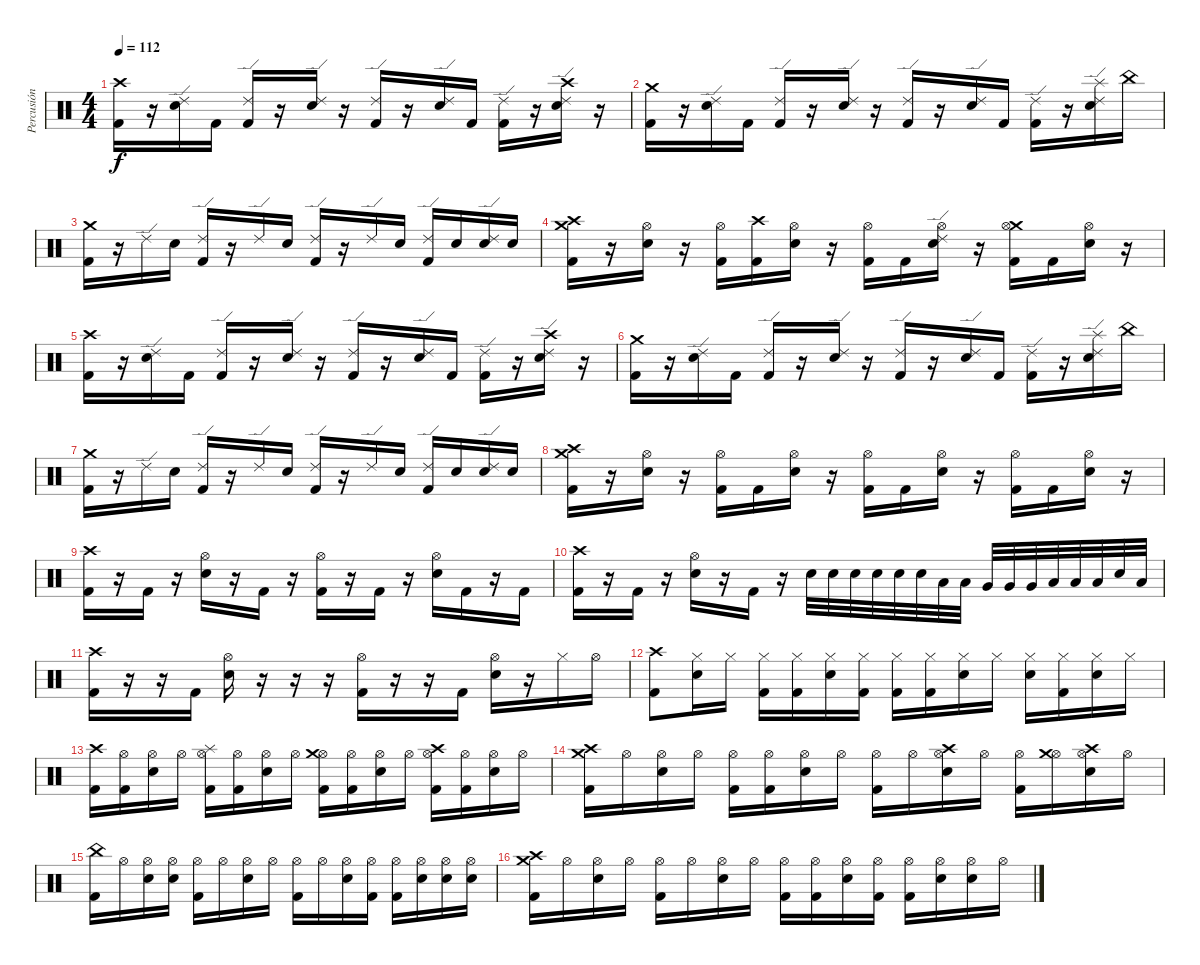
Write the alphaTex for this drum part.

\track ("Percusión" "Percusión") {instrument percussion}
\staff {score}
\articulation defaults
\ts (4 4)
\tempo 112
\clef neutral
\ks c
("Crash high (hit)" "Kick (hit) 2").16{dy f} r.16 ("Ride (edge) 2" "Electric Snare (hit)").16 "Kick (hit) 2".16 ("Ride (edge) 2" "Kick (hit) 2").16 r.16 ("Ride (edge) 2" "Electric Snare (hit)").16 r.16 ("Ride (edge) 2" "Kick (hit) 2").16 r.16 ("Ride (edge) 2" "Electric Snare (hit)").16 "Kick (hit) 2".16 ("Ride (edge) 2" "Kick (hit) 2").16 r.16 ("Crash high (hit)" "Ride (edge) 2" "Electric Snare (hit)").16 r.16 |
("Crash medium (hit)" "Kick (hit) 2").16 r.16 ("Ride (edge) 2" "Electric Snare (hit)").16 "Kick (hit) 2".16 ("Ride (edge) 2" "Kick (hit) 2").16 r.16 ("Ride (edge) 2" "Electric Snare (hit)").16 r.16 ("Ride (edge) 2" "Kick (hit) 2").16 r.16 ("Ride (edge) 2" "Electric Snare (hit)").16 "Kick (hit) 2".16 ("Ride (edge) 2" "Kick (hit) 2").16 r.16 ("Splash (hit)" "Ride (edge) 2" "Electric Snare (hit)").16 "China (hit)".16 |
("Crash medium (hit)" "Kick (hit) 2").16 r.16 "Ride (edge) 2".16 "Electric Snare (hit)".16 ("Ride (edge) 2" "Kick (hit) 2").16 r.16 "Ride (edge) 2".16 "Electric Snare (hit)".16 ("Ride (edge) 2" "Kick (hit) 2").16 r.16 "Ride (edge) 2".16 "Electric Snare (hit)".16 ("Ride (edge) 2" "Kick (hit) 2").16 "Electric Snare (hit)".16 ("Ride (edge) 2" "Electric Snare (hit)").16 "Electric Snare (hit)".16 |
("Crash high (hit)" "Crash medium (hit)" "Kick (hit) 2").16 r.16 ("Hi-Hat (open)" "Electric Snare (hit)").16 r.16 ("Hi-Hat (open)" "Kick (hit) 2").16 ("Crash high (hit)" "Kick (hit) 2").16 ("Hi-Hat (open)" "Electric Snare (hit)").16 r.16 ("Hi-Hat (open)" "Kick (hit) 2").16 "Kick (hit) 2".16 ("Ride (edge) 2" "Hi-Hat (open)" "Electric Snare (hit)").16 r.16 ("Crash medium (hit)" "Hi-Hat (open)" "Kick (hit) 2").16 "Kick (hit) 2".16 ("Hi-Hat (open)" "Electric Snare (hit)").16 r.16 |
("Crash high (hit)" "Kick (hit) 2").16 r.16 ("Ride (edge) 2" "Electric Snare (hit)").16 "Kick (hit) 2".16 ("Ride (edge) 2" "Kick (hit) 2").16 r.16 ("Ride (edge) 2" "Electric Snare (hit)").16 r.16 ("Ride (edge) 2" "Kick (hit) 2").16 r.16 ("Ride (edge) 2" "Electric Snare (hit)").16 "Kick (hit) 2".16 ("Ride (edge) 2" "Kick (hit) 2").16 r.16 ("Crash high (hit)" "Ride (edge) 2" "Electric Snare (hit)").16 r.16 |
("Crash medium (hit)" "Kick (hit) 2").16 r.16 ("Ride (edge) 2" "Electric Snare (hit)").16 "Kick (hit) 2".16 ("Ride (edge) 2" "Kick (hit) 2").16 r.16 ("Ride (edge) 2" "Electric Snare (hit)").16 r.16 ("Ride (edge) 2" "Kick (hit) 2").16 r.16 ("Ride (edge) 2" "Electric Snare (hit)").16 "Kick (hit) 2".16 ("Ride (edge) 2" "Kick (hit) 2").16 r.16 ("Splash (hit)" "Ride (edge) 2" "Electric Snare (hit)").16 "China (hit)".16 |
("Crash medium (hit)" "Kick (hit) 2").16 r.16 "Ride (edge) 2".16 "Electric Snare (hit)".16 ("Ride (edge) 2" "Kick (hit) 2").16 r.16 "Ride (edge) 2".16 "Electric Snare (hit)".16 ("Ride (edge) 2" "Kick (hit) 2").16 r.16 "Ride (edge) 2".16 "Electric Snare (hit)".16 ("Ride (edge) 2" "Kick (hit) 2").16 "Electric Snare (hit)".16 ("Ride (edge) 2" "Electric Snare (hit)").16 "Electric Snare (hit)".16 |
("Crash high (hit)" "Crash medium (hit)" "Kick (hit) 2").16 r.16 ("Hi-Hat (open)" "Electric Snare (hit)").16 r.16 ("Hi-Hat (open)" "Kick (hit) 2").16 "Kick (hit) 2".16 ("Hi-Hat (open)" "Electric Snare (hit)").16 r.16 ("Hi-Hat (open)" "Kick (hit) 2").16 "Kick (hit) 2".16 ("Hi-Hat (open)" "Electric Snare (hit)").16 r.16 ("Hi-Hat (open)" "Kick (hit) 2").16 "Kick (hit) 2".16 ("Hi-Hat (open)" "Electric Snare (hit)").16 r.16 |
("Crash high (hit)" "Kick (hit) 2").16 r.16 "Kick (hit) 2".16 r.16 ("Hi-Hat (open)" "Electric Snare (hit)").16 r.16 "Kick (hit) 2".16 r.16 ("Hi-Hat (open)" "Kick (hit) 2").16 r.16 "Kick (hit) 2".16 r.16 ("Hi-Hat (open)" "Electric Snare (hit)").16 "Kick (hit) 2".16 r.16 "Kick (hit) 2".16 |
("Crash high (hit)" "Kick (hit) 2").16 r.16 "Kick (hit) 2".16 r.16 ("Hi-Hat (open)" "Electric Snare (hit)").16 r.16 "Kick (hit) 2".16 r.16 "Electric Snare (hit)".32 "Electric Snare (hit)".32 "Electric Snare (hit)".32 "Electric Snare (hit)".32 "Electric Snare (hit)".32 "Electric Snare (hit)".32 "Low Tom (hit)".32 "Low Tom (hit)".32 "Very Low Tom (hit)".32 "Very Low Tom (hit)".32 "Very Low Tom (hit)".32 "Low Floor Tom (hit)".32 "Low Floor Tom (hit)".32 "Low Floor Tom (hit)".32 "Electric Snare (hit)".32 "Low Floor Tom (hit)".32 |
("Crash high (hit)" "Kick (hit) 2").16 r.16 r.16 "Kick (hit) 2".16 ("Hi-Hat (open)" "Electric Snare (hit)").16 r.16 r.16 r.16 ("Hi-Hat (open)" "Kick (hit) 2").16 r.16 r.16 "Kick (hit) 2".16 ("Hi-Hat (open)" "Electric Snare (hit)").16 r.16 "Hi-Hat (closed)".16 "Hi-Hat (open)".16 |
("Crash high (hit)" "Kick (hit) 2").8 ("Hi-Hat (closed)" "Electric Snare (hit)").16 "Hi-Hat (closed)".16 ("Hi-Hat (closed)" "Kick (hit) 2").16 ("Hi-Hat (closed)" "Kick (hit) 2").16 ("Hi-Hat (closed)" "Electric Snare (hit)").16 ("Hi-Hat (closed)" "Kick (hit) 2").16 ("Hi-Hat (closed)" "Kick (hit) 2").16 ("Hi-Hat (closed)" "Kick (hit) 2").16 ("Hi-Hat (closed)" "Electric Snare (hit)").16 "Hi-Hat (closed)".16 ("Hi-Hat (closed)" "Electric Snare (hit)").16 ("Hi-Hat (closed)" "Kick (hit) 2").16 ("Hi-Hat (closed)" "Electric Snare (hit)").16 "Hi-Hat (closed)".16 |
("Crash high (hit)" "Kick (hit) 2").16 ("Hi-Hat (open)" "Kick (hit) 2").16 ("Hi-Hat (open)" "Electric Snare (hit)").16 "Hi-Hat (open)".16 ("Hi-Hat (open)" "Kick (hit) 2" "Splash (hit)").16 ("Hi-Hat (open)" "Kick (hit) 2").16 ("Hi-Hat (open)" "Electric Snare (hit)").16 "Hi-Hat (open)".16 ("Hi-Hat (open)" "Kick (hit) 2" "Crash medium (hit)").16 ("Hi-Hat (open)" "Kick (hit) 2").16 ("Hi-Hat (open)" "Electric Snare (hit)").16 "Hi-Hat (open)".16 ("Hi-Hat (open)" "Kick (hit) 2" "Crash high (hit)").16 ("Hi-Hat (open)" "Kick (hit) 2").16 ("Hi-Hat (open)" "Electric Snare (hit)").16 "Hi-Hat (open)".16 |
("Crash medium (hit)" "Kick (hit) 2" "Crash high (hit)").16 "Hi-Hat (open)".16 ("Hi-Hat (open)" "Electric Snare (hit)").16 "Hi-Hat (open)".16 ("Hi-Hat (open)" "Kick (hit) 2").16 ("Hi-Hat (open)" "Kick (hit) 2").16 ("Hi-Hat (open)" "Electric Snare (hit)").16 "Hi-Hat (open)".16 ("Hi-Hat (open)" "Kick (hit) 2").16 "Hi-Hat (open)".16 ("Hi-Hat (open)" "Electric Snare (hit)" "Crash high (hit)").16 "Hi-Hat (open)".16 ("Hi-Hat (open)" "Kick (hit) 2").16 ("Hi-Hat (open)" "Crash medium (hit)").16 ("Hi-Hat (open)" "Electric Snare (hit)" "Crash high (hit)").16 "Hi-Hat (open)".16 |
("China (hit)" "Kick (hit) 2").16 "Hi-Hat (open)".16 ("Hi-Hat (open)" "Electric Snare (hit)").16 ("Hi-Hat (open)" "Snare (hit)").16 ("Hi-Hat (open)" "Kick (hit) 2").16 "Hi-Hat (open)".16 ("Hi-Hat (open)" "Electric Snare (hit)").16 "Hi-Hat (open)".16 ("Hi-Hat (open)" "Kick (hit) 2").16 "Hi-Hat (open)".16 ("Hi-Hat (open)" "Electric Snare (hit)").16 ("Hi-Hat (open)" "Kick (hit) 2").16 ("Hi-Hat (open)" "Kick (hit) 2").16 ("Hi-Hat (open)" "Snare (hit)").16 ("Hi-Hat (open)" "Electric Snare (hit)").16 ("Hi-Hat (open)" "Electric Snare (hit)").16 |
("Crash medium (hit)" "Crash high (hit)" "Kick (hit) 2").16 "Hi-Hat (open)".16 ("Hi-Hat (open)" "Electric Snare (hit)").16 "Hi-Hat (open)".16 ("Hi-Hat (open)" "Kick (hit) 2").16 "Hi-Hat (open)".16 ("Hi-Hat (open)" "Electric Snare (hit)").16 "Hi-Hat (open)".16 ("Hi-Hat (open)" "Kick (hit) 2").16 ("Hi-Hat (open)" "Kick (hit) 2").16 ("Hi-Hat (open)" "Electric Snare (hit)").16 ("Hi-Hat (open)" "Kick (hit) 2").16 ("Hi-Hat (open)" "Kick (hit) 2").16 ("Hi-Hat (open)" "Electric Snare (hit)").16 ("Hi-Hat (open)" "Electric Snare (hit)").16 "Hi-Hat (open)".16
